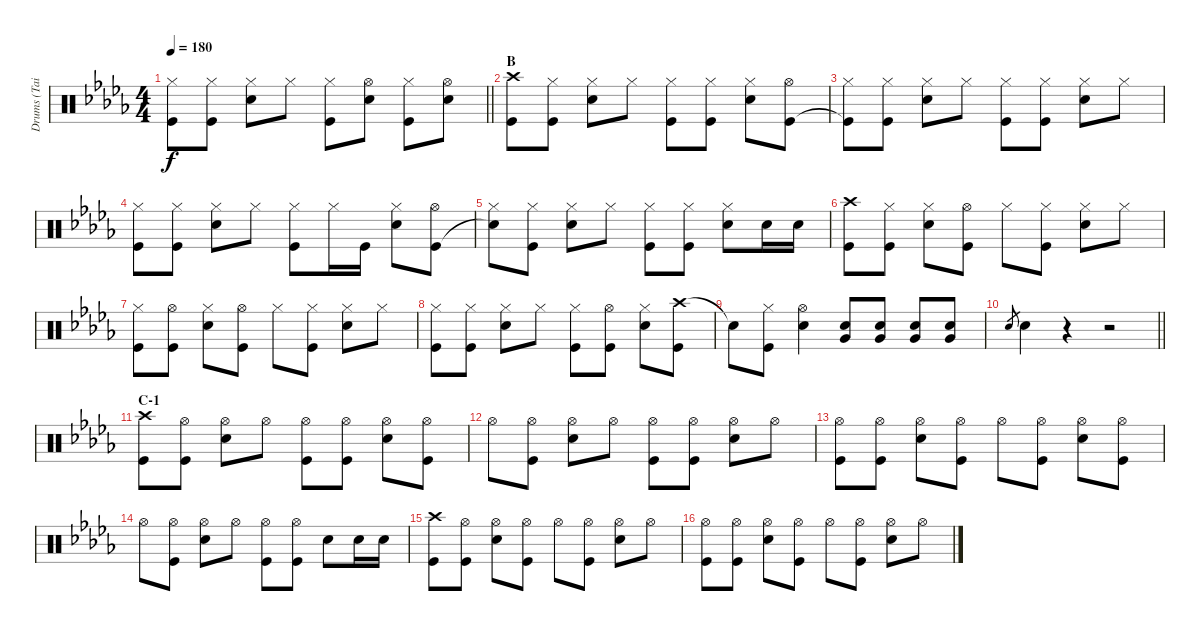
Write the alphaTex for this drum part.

\track ("Drums (Tainaka Ritsu)" "Drums (Tai") {instrument percussion}
\staff {score}
\articulation defaults
\ts (4 4)
\tempo 180
\clef neutral
\barLineRight lightlight
\ks db
("Hi-Hat (closed)" "Kick (hit)").8{dy f} ("Hi-Hat (closed)" "Kick (hit)").8 ("Hi-Hat (closed)" "Snare (hit) 2").8 "Hi-Hat (closed)".8 ("Hi-Hat (closed)" "Kick (hit)").8 ("Hi-Hat (open)" "Snare (hit) 2").8 ("Hi-Hat (closed)" "Kick (hit)").8 ("Hi-Hat (open)" "Snare (hit) 2").8 |
\section ("" "B")
("Crash high (hit)" "Kick (hit)").8 ("Hi-Hat (closed)" "Kick (hit)").8 ("Hi-Hat (closed)" "Snare (hit) 2").8 "Hi-Hat (closed)".8 ("Hi-Hat (closed)" "Kick (hit)").8 ("Hi-Hat (closed)" "Kick (hit)").8 ("Hi-Hat (closed)" "Snare (hit) 2").8 ("Hi-Hat (open)" "Kick (hit)").8 |
("Hi-Hat (closed)" "Kick (hit)"{t}).8 ("Hi-Hat (closed)" "Kick (hit)").8 ("Hi-Hat (closed)" "Snare (hit) 2").8 "Hi-Hat (closed)".8 ("Hi-Hat (closed)" "Kick (hit)").8 ("Hi-Hat (closed)" "Kick (hit)").8 ("Hi-Hat (closed)" "Snare (hit) 2").8 "Hi-Hat (closed)".8 |
("Hi-Hat (closed)" "Kick (hit)").8 ("Hi-Hat (closed)" "Kick (hit)").8 ("Hi-Hat (closed)" "Snare (hit) 2").8 "Hi-Hat (closed)".8 ("Hi-Hat (closed)" "Kick (hit)").8 "Hi-Hat (closed)".16 "Kick (hit)".16 ("Hi-Hat (closed)" "Snare (hit) 2").8 ("Hi-Hat (open)" "Kick (hit)").8 |
("Hi-Hat (closed)" "Snare (hit)"{t}).8 ("Hi-Hat (closed)" "Kick (hit)").8 ("Hi-Hat (closed)" "Snare (hit) 2").8 "Hi-Hat (closed)".8 ("Hi-Hat (closed)" "Kick (hit)").8 ("Hi-Hat (closed)" "Kick (hit)").8 ("Hi-Hat (closed)" "Snare (hit) 2").8 "Snare (hit) 2".16 "Snare (hit) 2".16 |
("Crash high (hit)" "Kick (hit)").8 ("Hi-Hat (closed)" "Kick (hit)").8 ("Hi-Hat (closed)" "Snare (hit) 2").8 ("Hi-Hat (open)" "Kick (hit)").8 "Hi-Hat (closed)".8 ("Hi-Hat (closed)" "Kick (hit)").8 ("Hi-Hat (closed)" "Snare (hit) 2").8 "Hi-Hat (closed)".8 |
("Hi-Hat (closed)" "Kick (hit)").8 ("Hi-Hat (open)" "Kick (hit)").8 ("Hi-Hat (closed)" "Snare (hit) 2").8 ("Hi-Hat (open)" "Kick (hit)").8 "Hi-Hat (closed)".8 ("Hi-Hat (closed)" "Kick (hit)").8 ("Hi-Hat (closed)" "Snare (hit) 2").8 "Hi-Hat (closed)".8 |
("Hi-Hat (closed)" "Kick (hit)").8 ("Hi-Hat (closed)" "Kick (hit)").8 ("Hi-Hat (closed)" "Snare (hit) 2").8 "Hi-Hat (closed)".8 ("Hi-Hat (closed)" "Kick (hit)").8 ("Hi-Hat (open)" "Kick (hit)").8 ("Hi-Hat (closed)" "Snare (hit) 2").8 ("Crash high (hit)" "Kick (hit)").8 |
"Snare (hit)"{t}.8 ("Hi-Hat (closed)" "Kick (hit)").8 ("Hi-Hat (open)" "Snare (hit) 2").4 ("Snare (hit) 2" "Very Low Tom (hit)").8 ("Snare (hit) 2" "Very Low Tom (hit)").8 ("Snare (hit) 2" "Very Low Tom (hit)").8 ("Snare (hit) 2" "Very Low Tom (hit)").8 |
\barLineRight lightlight "Snare (hit) 2".8{gr} "Snare (hit) 2".4
r.4 r.2 |
\section ("" "C-1")
("Crash high (hit)" "Kick (hit)").8 ("Hi-Hat (open)" "Kick (hit)").8 ("Hi-Hat (open)" "Snare (hit) 2").8 "Hi-Hat (open)".8 ("Hi-Hat (open)" "Kick (hit)").8 ("Hi-Hat (open)" "Kick (hit)").8 ("Hi-Hat (open)" "Snare (hit) 2").8 ("Hi-Hat (open)" "Kick (hit)").8 |
"Hi-Hat (open)".8 ("Hi-Hat (open)" "Kick (hit)").8 ("Hi-Hat (open)" "Snare (hit) 2").8 "Hi-Hat (open)".8 ("Hi-Hat (open)" "Kick (hit)").8 ("Hi-Hat (open)" "Kick (hit)").8 ("Hi-Hat (open)" "Snare (hit) 2").8 "Hi-Hat (open)".8 |
("Hi-Hat (open)" "Kick (hit)").8 ("Hi-Hat (open)" "Kick (hit)").8 ("Hi-Hat (open)" "Snare (hit) 2").8 ("Hi-Hat (open)" "Kick (hit)").8 "Hi-Hat (open)".8 ("Hi-Hat (open)" "Kick (hit)").8 ("Hi-Hat (open)" "Snare (hit) 2").8 ("Hi-Hat (open)" "Kick (hit)").8 |
"Hi-Hat (open)".8 ("Hi-Hat (open)" "Kick (hit)").8 ("Hi-Hat (open)" "Snare (hit) 2").8 "Hi-Hat (open)".8 ("Hi-Hat (open)" "Kick (hit)").8 ("Hi-Hat (open)" "Kick (hit)").8 "Snare (hit) 2".8 "Snare (hit) 2".16 "Snare (hit) 2".16 |
("Crash high (hit)" "Kick (hit)").8 ("Hi-Hat (open)" "Kick (hit)").8 ("Hi-Hat (open)" "Snare (hit) 2").8 ("Hi-Hat (open)" "Kick (hit)").8 "Hi-Hat (open)".8 ("Hi-Hat (open)" "Kick (hit)").8 ("Hi-Hat (open)" "Snare (hit) 2").8 "Hi-Hat (open)".8 |
("Hi-Hat (open)" "Kick (hit)").8 ("Hi-Hat (open)" "Kick (hit)").8 ("Hi-Hat (open)" "Snare (hit) 2").8 ("Hi-Hat (open)" "Kick (hit)").8 "Hi-Hat (open)".8 ("Hi-Hat (open)" "Kick (hit)").8 ("Hi-Hat (open)" "Snare (hit) 2").8 "Hi-Hat (open)".8
